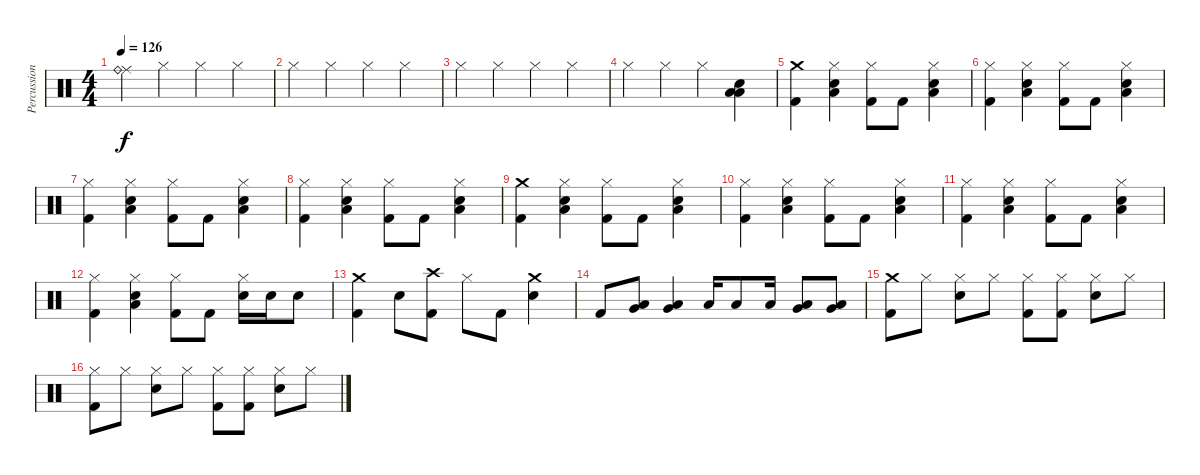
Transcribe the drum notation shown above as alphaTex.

\track ("Percussion" "Percussion") {instrument percussion}
\staff {score}
\articulation defaults
\ts (4 4)
\tempo 126
\clef neutral
\ks c
("Ride (middle)" "Ride (bell)").4{dy f} "Hi-Hat (closed)".4 "Hi-Hat (closed)".4 "Hi-Hat (closed)".4 |
"Hi-Hat (closed)".4 "Hi-Hat (closed)".4 "Hi-Hat (closed)".4 "Hi-Hat (closed)".4 |
"Hi-Hat (closed)".4 "Hi-Hat (closed)".4 "Hi-Hat (closed)".4 "Hi-Hat (closed)".4 |
"Hi-Hat (closed)".4 "Hi-Hat (closed)".4 "Hi-Hat (closed)".4 ("Low Tom (hit)" "Low Floor Tom (hit)" "Metronome (bell)").4 |
("Crash medium (hit)" "Kick (hit) 2").4 ("Hi-Hat (closed)" "Low Floor Tom (hit)" "Metronome (bell)").4 ("Hi-Hat (closed)" "Kick (hit) 2").8 "Kick (hit) 2".8 ("Hi-Hat (closed)" "Low Floor Tom (hit)" "Metronome (bell)").4 |
("Hi-Hat (closed)" "Kick (hit) 2").4 ("Hi-Hat (closed)" "Low Floor Tom (hit)" "Metronome (bell)").4 ("Hi-Hat (closed)" "Kick (hit) 2").8 "Kick (hit) 2".8 ("Hi-Hat (closed)" "Low Floor Tom (hit)" "Metronome (bell)").4 |
("Hi-Hat (closed)" "Kick (hit) 2").4 ("Hi-Hat (closed)" "Low Floor Tom (hit)" "Metronome (bell)").4 ("Hi-Hat (closed)" "Kick (hit) 2").8 "Kick (hit) 2".8 ("Hi-Hat (closed)" "Low Floor Tom (hit)" "Metronome (bell)").4 |
("Hi-Hat (closed)" "Kick (hit) 2").4 ("Hi-Hat (closed)" "Low Floor Tom (hit)" "Metronome (bell)").4 ("Hi-Hat (closed)" "Kick (hit) 2").8 "Kick (hit) 2".8 ("Hi-Hat (closed)" "Low Floor Tom (hit)" "Metronome (bell)").4 |
("Crash medium (hit)" "Kick (hit) 2").4 ("Hi-Hat (closed)" "Low Floor Tom (hit)" "Metronome (bell)").4 ("Hi-Hat (closed)" "Kick (hit) 2").8 "Kick (hit) 2".8 ("Hi-Hat (closed)" "Low Floor Tom (hit)" "Metronome (bell)").4 |
("Hi-Hat (closed)" "Kick (hit) 2").4 ("Hi-Hat (closed)" "Low Floor Tom (hit)" "Metronome (bell)").4 ("Hi-Hat (closed)" "Kick (hit) 2").8 "Kick (hit) 2".8 ("Hi-Hat (closed)" "Low Floor Tom (hit)" "Metronome (bell)").4 |
("Hi-Hat (closed)" "Kick (hit) 2").4 ("Hi-Hat (closed)" "Low Floor Tom (hit)" "Metronome (bell)").4 ("Hi-Hat (closed)" "Kick (hit) 2").8 "Kick (hit) 2".8 ("Hi-Hat (closed)" "Low Floor Tom (hit)" "Metronome (bell)").4 |
("Hi-Hat (closed)" "Kick (hit) 2").4 ("Hi-Hat (closed)" "Low Floor Tom (hit)" "Metronome (bell)").4 ("Hi-Hat (closed)" "Kick (hit) 2").8 "Kick (hit) 2".8 ("Hi-Hat (closed)" "Metronome (bell)").16 "Metronome (bell)".16 "Metronome (bell)".8 |
("Crash medium (hit)" "Kick (hit) 2").4 "Metronome (bell)".8 ("Crash high (hit)" "Kick (hit) 2").8 "Hi-Hat (closed)".8 "Kick (hit) 2".8 ("Crash medium (hit)" "Metronome (bell)").4 |
"Kick (hit) 2".8 ("Low Tom (hit)" "Very Low Tom (hit)").8 ("Very Low Tom (hit)" "Low Floor Tom (hit)").4 "Low Tom (hit)".16 "Low Tom (hit)".8 "Low Tom (hit)".16 ("Very Low Tom (hit)" "Low Floor Tom (hit)").8 ("Very Low Tom (hit)" "Low Floor Tom (hit)").8 |
("Crash medium (hit)" "Kick (hit) 2").8 "Hi-Hat (closed)".8 ("Hi-Hat (closed)" "Metronome (bell)").8 "Hi-Hat (closed)".8 ("Hi-Hat (closed)" "Kick (hit) 2").8 ("Hi-Hat (closed)" "Kick (hit) 2").8 ("Hi-Hat (closed)" "Metronome (bell)").8 "Hi-Hat (closed)".8 |
("Hi-Hat (closed)" "Kick (hit) 2").8 "Hi-Hat (closed)".8 ("Hi-Hat (closed)" "Metronome (bell)").8 "Hi-Hat (closed)".8 ("Hi-Hat (closed)" "Kick (hit) 2").8 ("Hi-Hat (closed)" "Kick (hit) 2").8 ("Hi-Hat (closed)" "Metronome (bell)").8 "Hi-Hat (closed)".8
